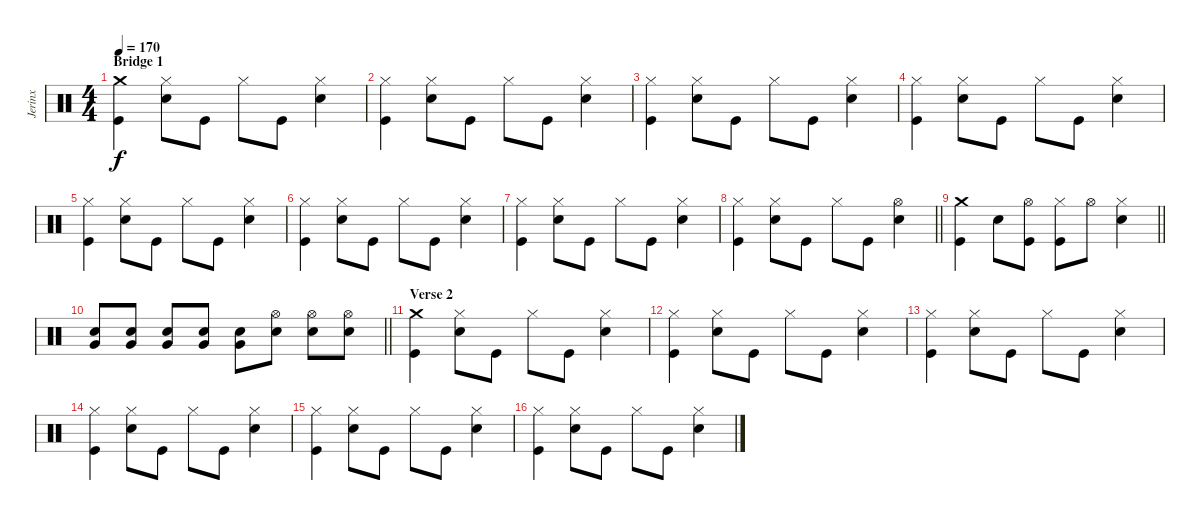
\track ("Jerinx" "Jerinx") {instrument percussion}
\staff {score}
\articulation defaults
\ts (4 4)
\section ("" "Bridge 1")
\tempo 170
\clef neutral
\ks c
("Kick (hit)" "Crash medium (hit)").4{dy f} ("Snare (hit) 2" "Hi-Hat (closed)").8 "Kick (hit)".8 "Hi-Hat (closed)".8 "Kick (hit)".8 ("Snare (hit) 2" "Hi-Hat (closed)").4 |
("Kick (hit)" "Hi-Hat (closed)").4 ("Snare (hit) 2" "Hi-Hat (closed)").8 "Kick (hit)".8 "Hi-Hat (closed)".8 "Kick (hit)".8 ("Snare (hit) 2" "Hi-Hat (closed)").4 |
("Kick (hit)" "Hi-Hat (closed)").4 ("Snare (hit) 2" "Hi-Hat (closed)").8 "Kick (hit)".8 "Hi-Hat (closed)".8 "Kick (hit)".8 ("Snare (hit) 2" "Hi-Hat (closed)").4 |
("Kick (hit)" "Hi-Hat (closed)").4 ("Snare (hit) 2" "Hi-Hat (closed)").8 "Kick (hit)".8 "Hi-Hat (closed)".8 "Kick (hit)".8 ("Snare (hit) 2" "Hi-Hat (closed)").4 |
("Kick (hit)" "Hi-Hat (closed)").4 ("Snare (hit) 2" "Hi-Hat (closed)").8 "Kick (hit)".8 "Hi-Hat (closed)".8 "Kick (hit)".8 ("Snare (hit) 2" "Hi-Hat (closed)").4 |
("Kick (hit)" "Hi-Hat (closed)").4 ("Snare (hit) 2" "Hi-Hat (closed)").8 "Kick (hit)".8 "Hi-Hat (closed)".8 "Kick (hit)".8 ("Snare (hit) 2" "Hi-Hat (closed)").4 |
("Kick (hit)" "Hi-Hat (closed)").4 ("Snare (hit) 2" "Hi-Hat (closed)").8 "Kick (hit)".8 "Hi-Hat (closed)".8 "Kick (hit)".8 ("Snare (hit) 2" "Hi-Hat (closed)").4 |
\barLineRight lightlight
("Kick (hit)" "Hi-Hat (closed)").4 ("Snare (hit) 2" "Hi-Hat (closed)").8 "Kick (hit)".8 "Hi-Hat (closed)".8 "Kick (hit)".8 ("Snare (hit) 2" "Hi-Hat (open)").4 |
\barLineRight lightlight
("Kick (hit)" "Crash medium (hit)").4 "Snare (hit) 2".8 ("Kick (hit)" "Hi-Hat (open)").8 ("Kick (hit)" "Hi-Hat (closed)").8 "Hi-Hat (open)".8 ("Snare (hit) 2" "Hi-Hat (closed)").4 |
\barLineRight lightlight
("Snare (hit) 2" "Very Low Tom (hit)").8 ("Snare (hit) 2" "Very Low Tom (hit)").8 ("Snare (hit) 2" "Very Low Tom (hit)").8 ("Snare (hit) 2" "Very Low Tom (hit)").8 ("Snare (hit) 2" "Very Low Tom (hit)").8 ("Snare (hit) 2" "Hi-Hat (open)").8 ("Snare (hit) 2" "Hi-Hat (open)").8 ("Snare (hit) 2" "Hi-Hat (open)").8 |
\section ("" "Verse 2")
("Kick (hit)" "Crash medium (hit)").4 ("Snare (hit) 2" "Hi-Hat (closed)").8 "Kick (hit)".8 "Hi-Hat (closed)".8 "Kick (hit)".8 ("Snare (hit) 2" "Hi-Hat (closed)").4 |
("Kick (hit)" "Hi-Hat (closed)").4 ("Snare (hit) 2" "Hi-Hat (closed)").8 "Kick (hit)".8 "Hi-Hat (closed)".8 "Kick (hit)".8 ("Snare (hit) 2" "Hi-Hat (closed)").4 |
("Kick (hit)" "Hi-Hat (closed)").4 ("Snare (hit) 2" "Hi-Hat (closed)").8 "Kick (hit)".8 "Hi-Hat (closed)".8 "Kick (hit)".8 ("Snare (hit) 2" "Hi-Hat (closed)").4 |
("Kick (hit)" "Hi-Hat (closed)").4 ("Snare (hit) 2" "Hi-Hat (closed)").8 "Kick (hit)".8 "Hi-Hat (closed)".8 "Kick (hit)".8 ("Snare (hit) 2" "Hi-Hat (closed)").4 |
("Kick (hit)" "Hi-Hat (closed)").4 ("Snare (hit) 2" "Hi-Hat (closed)").8 "Kick (hit)".8 "Hi-Hat (closed)".8 "Kick (hit)".8 ("Snare (hit) 2" "Hi-Hat (closed)").4 |
("Kick (hit)" "Hi-Hat (closed)").4 ("Snare (hit) 2" "Hi-Hat (closed)").8 "Kick (hit)".8 "Hi-Hat (closed)".8 "Kick (hit)".8 ("Snare (hit) 2" "Hi-Hat (closed)").4
